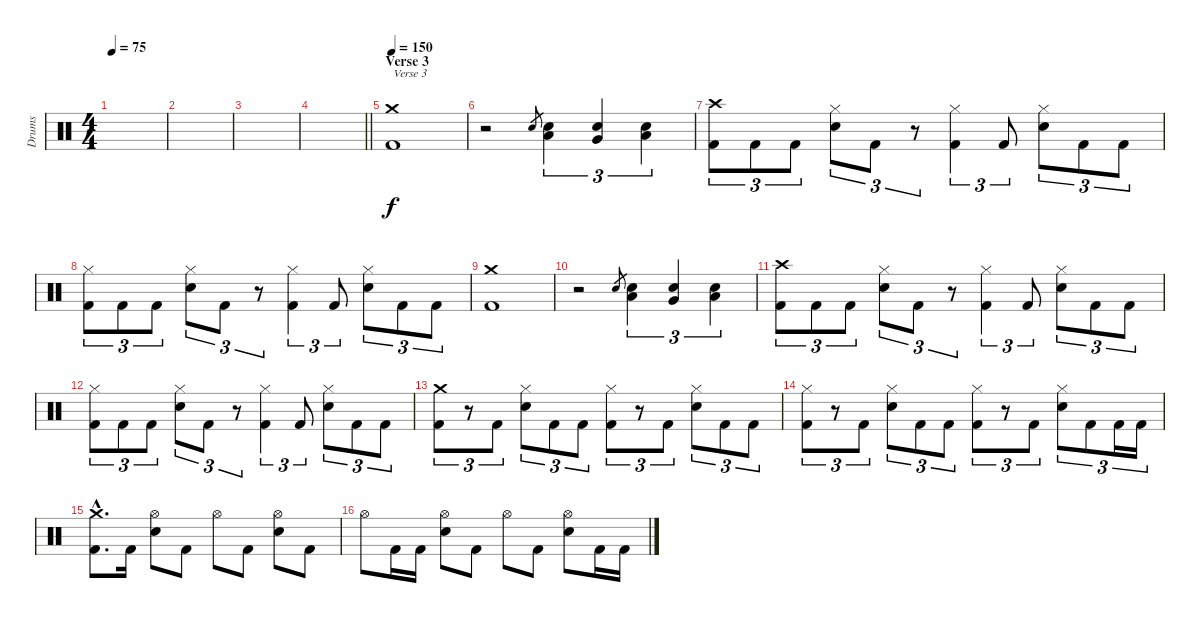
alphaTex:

\track ("Drums" "Drums") {instrument percussion}
\staff {score}
\articulation defaults
\ts (4 4)
\tempo 75
\clef neutral
\ks c
|
|
|
\barLineRight lightlight
|
\section ("" "Verse 3")
\tempo 150
("Kick (hit) 2" "Crash medium (hit)").1{txt "Verse 3"} |
r.2 "Snare (hit) 2".8{gr} ("Snare (hit) 2" "Low Tom (hit)").4{tu (3 2)} ("Snare (hit) 2" "Very Low Tom (hit)").4{tu (3 2)} ("Snare (hit) 2" "Low Floor Tom (hit)").4{tu (3 2)} |
("Kick (hit) 2" "Crash high (hit)").8{tu (3 2)} "Kick (hit) 2".8{tu (3 2)} "Kick (hit) 2".8{tu (3 2)} ("Snare (hit) 2" "Hi-Hat (closed)").8{tu (3 2)} "Kick (hit) 2".8{tu (3 2)} r.8{tu (3 2)} ("Kick (hit) 2" "Hi-Hat (closed)").4{tu (3 2)} "Kick (hit) 2".8{tu (3 2)} ("Snare (hit) 2" "Hi-Hat (closed)").8{tu (3 2)} "Kick (hit) 2".8{tu (3 2)} "Kick (hit) 2".8{tu (3 2)} |
("Kick (hit) 2" "Hi-Hat (closed)").8{tu (3 2)} "Kick (hit) 2".8{tu (3 2)} "Kick (hit) 2".8{tu (3 2)} ("Snare (hit) 2" "Hi-Hat (closed)").8{tu (3 2)} "Kick (hit) 2".8{tu (3 2)} r.8{tu (3 2)} ("Kick (hit) 2" "Hi-Hat (closed)").4{tu (3 2)} "Kick (hit) 2".8{tu (3 2)} ("Snare (hit) 2" "Hi-Hat (closed)").8{tu (3 2)} "Kick (hit) 2".8{tu (3 2)} "Kick (hit) 2".8{tu (3 2)} |
("Kick (hit) 2" "Crash medium (hit)").1 |
r.2 "Snare (hit) 2".8{gr} ("Snare (hit) 2" "Low Tom (hit)").4{tu (3 2)} ("Snare (hit) 2" "Very Low Tom (hit)").4{tu (3 2)} ("Snare (hit) 2" "Low Floor Tom (hit)").4{tu (3 2)} |
("Kick (hit) 2" "Crash high (hit)").8{tu (3 2)} "Kick (hit) 2".8{tu (3 2)} "Kick (hit) 2".8{tu (3 2)} ("Snare (hit) 2" "Hi-Hat (closed)").8{tu (3 2)} "Kick (hit) 2".8{tu (3 2)} r.8{tu (3 2)} ("Kick (hit) 2" "Hi-Hat (closed)").4{tu (3 2)} "Kick (hit) 2".8{tu (3 2)} ("Snare (hit) 2" "Hi-Hat (closed)").8{tu (3 2)} "Kick (hit) 2".8{tu (3 2)} "Kick (hit) 2".8{tu (3 2)} |
("Kick (hit) 2" "Hi-Hat (closed)").8{tu (3 2)} "Kick (hit) 2".8{tu (3 2)} "Kick (hit) 2".8{tu (3 2)} ("Snare (hit) 2" "Hi-Hat (closed)").8{tu (3 2)} "Kick (hit) 2".8{tu (3 2)} r.8{tu (3 2)} ("Kick (hit) 2" "Hi-Hat (closed)").4{tu (3 2)} "Kick (hit) 2".8{tu (3 2)} ("Snare (hit) 2" "Hi-Hat (closed)").8{tu (3 2)} "Kick (hit) 2".8{tu (3 2)} "Kick (hit) 2".8{tu (3 2)} |
("Kick (hit) 2" "Crash medium (hit)").8{tu (3 2)} r.8{tu (3 2)} "Kick (hit) 2".8{tu (3 2)} ("Snare (hit) 2" "Hi-Hat (closed)").8{tu (3 2)} "Kick (hit) 2".8{tu (3 2)} "Kick (hit) 2".8{tu (3 2)} ("Kick (hit) 2" "Hi-Hat (closed)").8{tu (3 2)} r.8{tu (3 2)} "Kick (hit) 2".8{tu (3 2)} ("Snare (hit) 2" "Hi-Hat (closed)").8{tu (3 2)} "Kick (hit) 2".8{tu (3 2)} "Kick (hit) 2".8{tu (3 2)} |
("Kick (hit) 2" "Hi-Hat (closed)").8{tu (3 2)} r.8{tu (3 2)} "Kick (hit) 2".8{tu (3 2)} ("Snare (hit) 2" "Hi-Hat (closed)").8{tu (3 2)} "Kick (hit) 2".8{tu (3 2)} "Kick (hit) 2".8{tu (3 2)} ("Kick (hit) 2" "Hi-Hat (closed)").8{tu (3 2)} r.8{tu (3 2)} "Kick (hit) 2".8{tu (3 2)} ("Snare (hit) 2" "Hi-Hat (closed)").8{tu (3 2)} "Kick (hit) 2".8{tu (3 2)} "Kick (hit) 2".16{tu (3 2)} "Kick (hit) 2".16{tu (3 2)} |
("Kick (hit) 2"{hac} "Crash medium (hit)"{hac}).8{d} "Kick (hit) 2".16 ("Snare (hit) 2" "Hi-Hat (open)").8 "Kick (hit) 2".8 "Hi-Hat (open)".8 "Kick (hit) 2".8 ("Snare (hit) 2" "Hi-Hat (open)").8 "Kick (hit) 2".8 |
"Hi-Hat (open)".8 "Kick (hit) 2".16 "Kick (hit) 2".16 ("Snare (hit) 2" "Hi-Hat (open)").8 "Kick (hit) 2".8 "Hi-Hat (open)".8 "Kick (hit) 2".8 ("Snare (hit) 2" "Hi-Hat (open)").8 "Kick (hit) 2".16 "Kick (hit) 2".16
